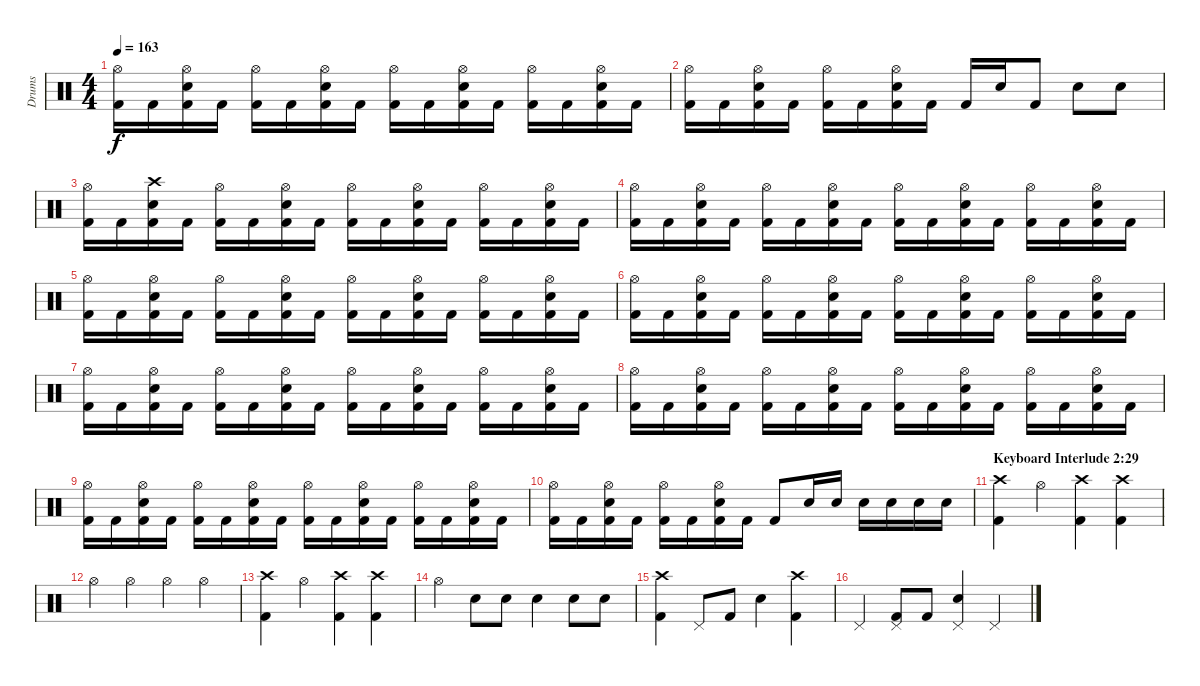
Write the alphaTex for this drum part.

\track ("Drums" "Drums") {instrument percussion}
\staff {score}
\articulation defaults
\ts (4 4)
\tempo 163
\clef neutral
\ks c
("Hi-Hat (open)" "Kick (hit) 2").16{dy f} "Kick (hit) 2".16 ("Hi-Hat (open)" "Kick (hit) 2" "Snare (hit) 2").16 "Kick (hit) 2".16 ("Hi-Hat (open)" "Kick (hit) 2").16 "Kick (hit) 2".16 ("Hi-Hat (open)" "Kick (hit) 2" "Snare (hit) 2").16 "Kick (hit) 2".16 ("Hi-Hat (open)" "Kick (hit) 2").16 "Kick (hit) 2".16 ("Hi-Hat (open)" "Kick (hit) 2" "Snare (hit) 2").16 "Kick (hit) 2".16 ("Hi-Hat (open)" "Kick (hit) 2").16 "Kick (hit) 2".16 ("Hi-Hat (open)" "Kick (hit) 2" "Snare (hit) 2").16 "Kick (hit) 2".16 |
("Hi-Hat (open)" "Kick (hit) 2").16 "Kick (hit) 2".16 ("Hi-Hat (open)" "Kick (hit) 2" "Snare (hit) 2").16 "Kick (hit) 2".16 ("Hi-Hat (open)" "Kick (hit) 2").16 "Kick (hit) 2".16 ("Hi-Hat (open)" "Kick (hit) 2" "Snare (hit) 2").16 "Kick (hit) 2".16 "Kick (hit) 2".16 "Snare (hit) 2".16 "Kick (hit) 2".8 "Snare (hit) 2".8 "Snare (hit) 2".8 |
("Hi-Hat (open)" "Kick (hit) 2").16 "Kick (hit) 2".16 ("Crash high (hit)" "Kick (hit) 2" "Snare (hit) 2").16 "Kick (hit) 2".16 ("Hi-Hat (open)" "Kick (hit) 2").16 "Kick (hit) 2".16 ("Hi-Hat (open)" "Kick (hit) 2" "Snare (hit) 2").16 "Kick (hit) 2".16 ("Hi-Hat (open)" "Kick (hit) 2").16 "Kick (hit) 2".16 ("Hi-Hat (open)" "Kick (hit) 2" "Snare (hit) 2").16 "Kick (hit) 2".16 ("Hi-Hat (open)" "Kick (hit) 2").16 "Kick (hit) 2".16 ("Hi-Hat (open)" "Kick (hit) 2" "Snare (hit) 2").16 "Kick (hit) 2".16 |
("Hi-Hat (open)" "Kick (hit) 2").16 "Kick (hit) 2".16 ("Hi-Hat (open)" "Kick (hit) 2" "Snare (hit) 2").16 "Kick (hit) 2".16 ("Hi-Hat (open)" "Kick (hit) 2").16 "Kick (hit) 2".16 ("Hi-Hat (open)" "Kick (hit) 2" "Snare (hit) 2").16 "Kick (hit) 2".16 ("Hi-Hat (open)" "Kick (hit) 2").16 "Kick (hit) 2".16 ("Hi-Hat (open)" "Kick (hit) 2" "Snare (hit) 2").16 "Kick (hit) 2".16 ("Hi-Hat (open)" "Kick (hit) 2").16 "Kick (hit) 2".16 ("Hi-Hat (open)" "Kick (hit) 2" "Snare (hit) 2").16 "Kick (hit) 2".16 |
("Hi-Hat (open)" "Kick (hit) 2").16 "Kick (hit) 2".16 ("Hi-Hat (open)" "Kick (hit) 2" "Snare (hit) 2").16 "Kick (hit) 2".16 ("Hi-Hat (open)" "Kick (hit) 2").16 "Kick (hit) 2".16 ("Hi-Hat (open)" "Kick (hit) 2" "Snare (hit) 2").16 "Kick (hit) 2".16 ("Hi-Hat (open)" "Kick (hit) 2").16 "Kick (hit) 2".16 ("Hi-Hat (open)" "Kick (hit) 2" "Snare (hit) 2").16 "Kick (hit) 2".16 ("Hi-Hat (open)" "Kick (hit) 2").16 "Kick (hit) 2".16 ("Hi-Hat (open)" "Kick (hit) 2" "Snare (hit) 2").16 "Kick (hit) 2".16 |
("Hi-Hat (open)" "Kick (hit) 2").16 "Kick (hit) 2".16 ("Hi-Hat (open)" "Kick (hit) 2" "Snare (hit) 2").16 "Kick (hit) 2".16 ("Hi-Hat (open)" "Kick (hit) 2").16 "Kick (hit) 2".16 ("Hi-Hat (open)" "Kick (hit) 2" "Snare (hit) 2").16 "Kick (hit) 2".16 ("Hi-Hat (open)" "Kick (hit) 2").16 "Kick (hit) 2".16 ("Hi-Hat (open)" "Kick (hit) 2" "Snare (hit) 2").16 "Kick (hit) 2".16 ("Hi-Hat (open)" "Kick (hit) 2").16 "Kick (hit) 2".16 ("Hi-Hat (open)" "Kick (hit) 2" "Snare (hit) 2").16 "Kick (hit) 2".16 |
("Hi-Hat (open)" "Kick (hit) 2").16 "Kick (hit) 2".16 ("Hi-Hat (open)" "Kick (hit) 2" "Snare (hit) 2").16 "Kick (hit) 2".16 ("Hi-Hat (open)" "Kick (hit) 2").16 "Kick (hit) 2".16 ("Hi-Hat (open)" "Kick (hit) 2" "Snare (hit) 2").16 "Kick (hit) 2".16 ("Hi-Hat (open)" "Kick (hit) 2").16 "Kick (hit) 2".16 ("Hi-Hat (open)" "Kick (hit) 2" "Snare (hit) 2").16 "Kick (hit) 2".16 ("Hi-Hat (open)" "Kick (hit) 2").16 "Kick (hit) 2".16 ("Hi-Hat (open)" "Kick (hit) 2" "Snare (hit) 2").16 "Kick (hit) 2".16 |
("Hi-Hat (open)" "Kick (hit) 2").16 "Kick (hit) 2".16 ("Hi-Hat (open)" "Kick (hit) 2" "Snare (hit) 2").16 "Kick (hit) 2".16 ("Hi-Hat (open)" "Kick (hit) 2").16 "Kick (hit) 2".16 ("Hi-Hat (open)" "Kick (hit) 2" "Snare (hit) 2").16 "Kick (hit) 2".16 ("Hi-Hat (open)" "Kick (hit) 2").16 "Kick (hit) 2".16 ("Hi-Hat (open)" "Kick (hit) 2" "Snare (hit) 2").16 "Kick (hit) 2".16 ("Hi-Hat (open)" "Kick (hit) 2").16 "Kick (hit) 2".16 ("Hi-Hat (open)" "Kick (hit) 2" "Snare (hit) 2").16 "Kick (hit) 2".16 |
("Hi-Hat (open)" "Kick (hit) 2").16 "Kick (hit) 2".16 ("Hi-Hat (open)" "Kick (hit) 2" "Snare (hit) 2").16 "Kick (hit) 2".16 ("Hi-Hat (open)" "Kick (hit) 2").16 "Kick (hit) 2".16 ("Hi-Hat (open)" "Kick (hit) 2" "Snare (hit) 2").16 "Kick (hit) 2".16 ("Hi-Hat (open)" "Kick (hit) 2").16 "Kick (hit) 2".16 ("Hi-Hat (open)" "Kick (hit) 2" "Snare (hit) 2").16 "Kick (hit) 2".16 ("Hi-Hat (open)" "Kick (hit) 2").16 "Kick (hit) 2".16 ("Hi-Hat (open)" "Kick (hit) 2" "Snare (hit) 2").16 "Kick (hit) 2".16 |
("Hi-Hat (open)" "Kick (hit) 2").16 "Kick (hit) 2".16 ("Hi-Hat (open)" "Kick (hit) 2" "Snare (hit) 2").16 "Kick (hit) 2".16 ("Hi-Hat (open)" "Kick (hit) 2").16 "Kick (hit) 2".16 ("Hi-Hat (open)" "Kick (hit) 2" "Snare (hit) 2").16 "Kick (hit) 2".16 "Kick (hit) 2".8 "Snare (hit) 2".16 "Snare (hit) 2".16 "Snare (hit) 2".16 "Snare (hit) 2".16 "Snare (hit) 2".16 "Snare (hit) 2".16 |
\section ("" "Keyboard Interlude 2:29")
("Kick (hit) 2" "Crash high (hit)").4 "Hi-Hat (open)".4 ("Kick (hit) 2" "Crash high (hit)").4 ("Kick (hit) 2" "Crash high (hit)").4 |
"Hi-Hat (open)".4 "Hi-Hat (open)".4 "Hi-Hat (open)".4 "Hi-Hat (open)".4 |
("Kick (hit) 2" "Crash high (hit)").4 "Hi-Hat (open)".4 ("Kick (hit) 2" "Crash high (hit)").4 ("Kick (hit) 2" "Crash high (hit)").4 |
"Hi-Hat (open)".4 "Snare (hit) 2".8 "Snare (hit) 2".8 "Snare (hit) 2".4 "Snare (hit) 2".8 "Snare (hit) 2".8 |
("Kick (hit) 2" "Crash high (hit)").4 "Pedal Hi-Hat (hit)".8 "Kick (hit) 2".8 "Snare (hit) 2".4 ("Kick (hit) 2" "Crash high (hit)").4 |
"Pedal Hi-Hat (hit)".4 ("Pedal Hi-Hat (hit)" "Kick (hit) 2").8 "Kick (hit) 2".8 ("Pedal Hi-Hat (hit)" "Snare (hit) 2").4 "Pedal Hi-Hat (hit)".4
